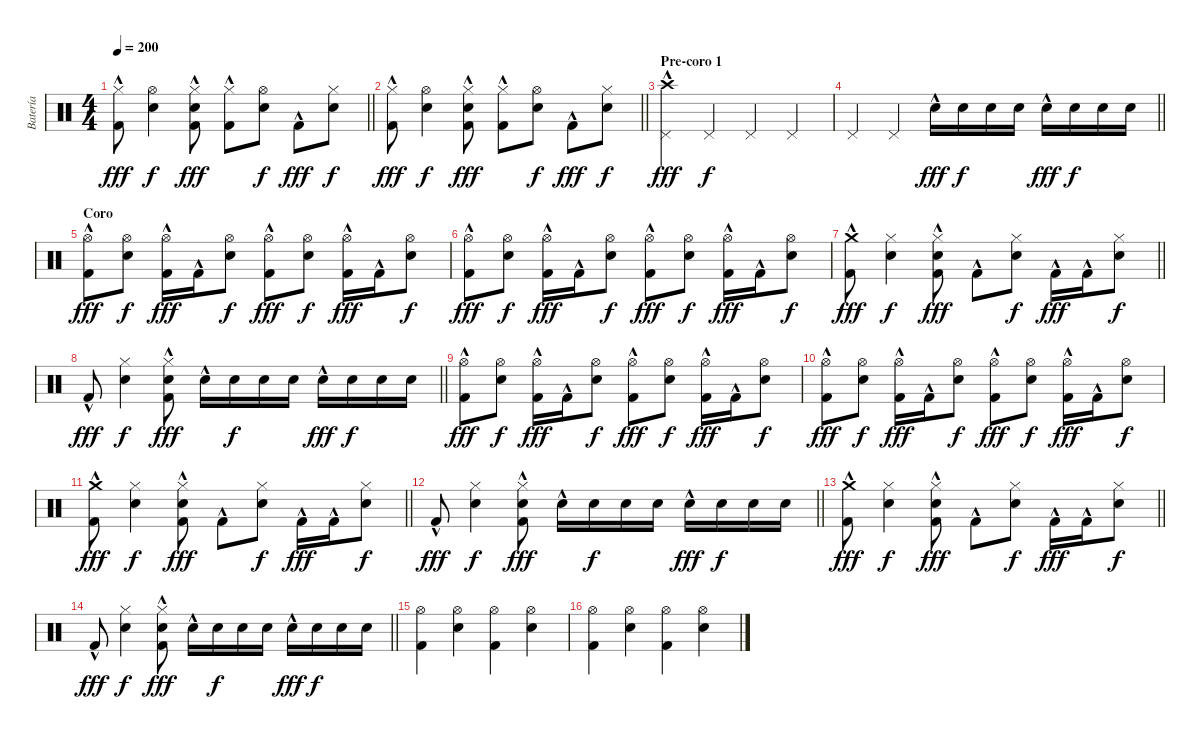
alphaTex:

\track ("Batería" "Batería") {instrument percussion bank 6}
\staff {score}
\articulation defaults
\ts (4 4)
\tempo 200
\clef neutral
\barLineRight lightlight
\ks c
("Hi-Hat (closed)" "Kick (hit) 2"{hac}).8{dy fff} ("Snare (hit) 2" "Hi-Hat (open)").4{dy f} ("Snare (hit) 2" "Hi-Hat (closed)" "Kick (hit) 2"{hac}).8{dy fff} ("Hi-Hat (closed)" "Kick (hit) 2"{hac}).8 ("Snare (hit) 2" "Hi-Hat (open)").8{dy f} "Kick (hit) 2"{hac}.8{dy fff} ("Snare (hit) 2" "Hi-Hat (closed)").8{dy f} |
\barLineRight lightlight
("Hi-Hat (closed)" "Kick (hit) 2"{hac}).8{dy fff} ("Snare (hit) 2" "Hi-Hat (open)").4{dy f} ("Snare (hit) 2" "Hi-Hat (closed)" "Kick (hit) 2"{hac}).8{dy fff} ("Hi-Hat (closed)" "Kick (hit) 2"{hac}).8 ("Snare (hit) 2" "Hi-Hat (open)").8{dy f} "Kick (hit) 2"{hac}.8{dy fff} ("Snare (hit) 2" "Hi-Hat (closed)").8{dy f} |
\section ("" "Pre-coro 1")
("Crash high (hit)"{hac} "Pedal Hi-Hat (hit)").4{dy fff} "Pedal Hi-Hat (hit)".4{dy f} "Pedal Hi-Hat (hit)".4 "Pedal Hi-Hat (hit)".4 |
\barLineRight lightlight "Pedal Hi-Hat (hit)".4 "Pedal Hi-Hat (hit)".4 "Snare (hit) 2"{hac}.16{dy fff} "Snare (hit) 2".16{dy f} "Snare (hit) 2".16 "Snare (hit) 2".16 "Snare (hit) 2"{hac}.16{dy fff} "Snare (hit) 2".16{dy f} "Snare (hit) 2".16 "Snare (hit) 2".16
|
\section ("" "Coro")
("Hi-Hat (open)" "Kick (hit) 2"{hac}).8{dy fff} ("Snare (hit) 2" "Hi-Hat (open)").8{dy f} ("Hi-Hat (open)" "Kick (hit) 2"{hac}).16{dy fff} "Kick (hit) 2"{hac}.16 ("Snare (hit) 2" "Hi-Hat (open)").8{dy f} ("Hi-Hat (open)" "Kick (hit) 2"{hac}).8{dy fff} ("Snare (hit) 2" "Hi-Hat (open)").8{dy f} ("Hi-Hat (open)" "Kick (hit) 2"{hac}).16{dy fff} "Kick (hit) 2"{hac}.16 ("Snare (hit) 2" "Hi-Hat (open)").8{dy f} |
("Hi-Hat (open)" "Kick (hit) 2"{hac}).8{dy fff} ("Snare (hit) 2" "Hi-Hat (open)").8{dy f} ("Hi-Hat (open)" "Kick (hit) 2"{hac}).16{dy fff} "Kick (hit) 2"{hac}.16 ("Snare (hit) 2" "Hi-Hat (open)").8{dy f} ("Hi-Hat (open)" "Kick (hit) 2"{hac}).8{dy fff} ("Snare (hit) 2" "Hi-Hat (open)").8{dy f} ("Hi-Hat (open)" "Kick (hit) 2"{hac}).16{dy fff} "Kick (hit) 2"{hac}.16 ("Snare (hit) 2" "Hi-Hat (open)").8{dy f} |
\barLineRight lightlight
("Crash medium (hit)" "Kick (hit) 2"{hac}).8{dy fff} ("Snare (hit) 2" "Hi-Hat (closed)").4{dy f} ("Snare (hit) 2" "Hi-Hat (closed)" "Kick (hit) 2"{hac}).8{dy fff} "Kick (hit) 2"{hac}.8 ("Snare (hit) 2" "Hi-Hat (closed)").8{dy f} "Kick (hit) 2"{hac}.16{dy fff} "Kick (hit) 2"{hac}.16 ("Snare (hit) 2" "Hi-Hat (closed)").8{dy f} |
\barLineRight lightlight "Kick (hit) 2"{hac}.8{dy fff}
("Snare (hit) 2" "Hi-Hat (closed)").4{dy f} ("Snare (hit) 2" "Hi-Hat (closed)" "Kick (hit) 2"{hac}).8{dy fff} "Snare (hit) 2"{hac}.16 "Snare (hit) 2".16{dy f} "Snare (hit) 2".16 "Snare (hit) 2".16 "Snare (hit) 2"{hac}.16{dy fff} "Snare (hit) 2".16{dy f} "Snare (hit) 2".16 "Snare (hit) 2".16 |
("Hi-Hat (open)" "Kick (hit) 2"{hac}).8{dy fff} ("Snare (hit) 2" "Hi-Hat (open)").8{dy f} ("Hi-Hat (open)" "Kick (hit) 2"{hac}).16{dy fff} "Kick (hit) 2"{hac}.16 ("Snare (hit) 2" "Hi-Hat (open)").8{dy f} ("Hi-Hat (open)" "Kick (hit) 2"{hac}).8{dy fff} ("Snare (hit) 2" "Hi-Hat (open)").8{dy f} ("Hi-Hat (open)" "Kick (hit) 2"{hac}).16{dy fff} "Kick (hit) 2"{hac}.16 ("Snare (hit) 2" "Hi-Hat (open)").8{dy f} |
("Hi-Hat (open)" "Kick (hit) 2"{hac}).8{dy fff} ("Snare (hit) 2" "Hi-Hat (open)").8{dy f} ("Hi-Hat (open)" "Kick (hit) 2"{hac}).16{dy fff} "Kick (hit) 2"{hac}.16 ("Snare (hit) 2" "Hi-Hat (open)").8{dy f} ("Hi-Hat (open)" "Kick (hit) 2"{hac}).8{dy fff} ("Snare (hit) 2" "Hi-Hat (open)").8{dy f} ("Hi-Hat (open)" "Kick (hit) 2"{hac}).16{dy fff} "Kick (hit) 2"{hac}.16 ("Snare (hit) 2" "Hi-Hat (open)").8{dy f} |
\barLineRight lightlight
("Crash medium (hit)" "Kick (hit) 2"{hac}).8{dy fff} ("Snare (hit) 2" "Hi-Hat (closed)").4{dy f} ("Snare (hit) 2" "Hi-Hat (closed)" "Kick (hit) 2"{hac}).8{dy fff} "Kick (hit) 2"{hac}.8 ("Snare (hit) 2" "Hi-Hat (closed)").8{dy f} "Kick (hit) 2"{hac}.16{dy fff} "Kick (hit) 2"{hac}.16 ("Snare (hit) 2" "Hi-Hat (closed)").8{dy f} |
\barLineRight lightlight "Kick (hit) 2"{hac}.8{dy fff}
("Snare (hit) 2" "Hi-Hat (closed)").4{dy f} ("Snare (hit) 2" "Hi-Hat (closed)" "Kick (hit) 2"{hac}).8{dy fff} "Snare (hit) 2"{hac}.16 "Snare (hit) 2".16{dy f} "Snare (hit) 2".16 "Snare (hit) 2".16 "Snare (hit) 2"{hac}.16{dy fff} "Snare (hit) 2".16{dy f} "Snare (hit) 2".16 "Snare (hit) 2".16 |
\barLineRight lightlight
("Crash medium (hit)" "Kick (hit) 2"{hac}).8{dy fff} ("Snare (hit) 2" "Hi-Hat (closed)").4{dy f} ("Snare (hit) 2" "Hi-Hat (closed)" "Kick (hit) 2"{hac}).8{dy fff} "Kick (hit) 2"{hac}.8 ("Snare (hit) 2" "Hi-Hat (closed)").8{dy f} "Kick (hit) 2"{hac}.16{dy fff} "Kick (hit) 2"{hac}.16 ("Snare (hit) 2" "Hi-Hat (closed)").8{dy f} |
\barLineRight lightlight "Kick (hit) 2"{hac}.8{dy fff}
("Snare (hit) 2" "Hi-Hat (closed)").4{dy f} ("Snare (hit) 2" "Hi-Hat (closed)" "Kick (hit) 2"{hac}).8{dy fff} "Snare (hit) 2"{hac}.16 "Snare (hit) 2".16{dy f} "Snare (hit) 2".16 "Snare (hit) 2".16 "Snare (hit) 2"{hac}.16{dy fff} "Snare (hit) 2".16{dy f} "Snare (hit) 2".16 "Snare (hit) 2".16 |
("Hi-Hat (open)" "Kick (hit) 2").4 ("Snare (hit) 2" "Hi-Hat (open)").4 ("Hi-Hat (open)" "Kick (hit) 2").4 ("Snare (hit) 2" "Hi-Hat (open)").4 |
("Hi-Hat (open)" "Kick (hit) 2").4 ("Snare (hit) 2" "Hi-Hat (open)").4 ("Hi-Hat (open)" "Kick (hit) 2").4 ("Snare (hit) 2" "Hi-Hat (open)").4
